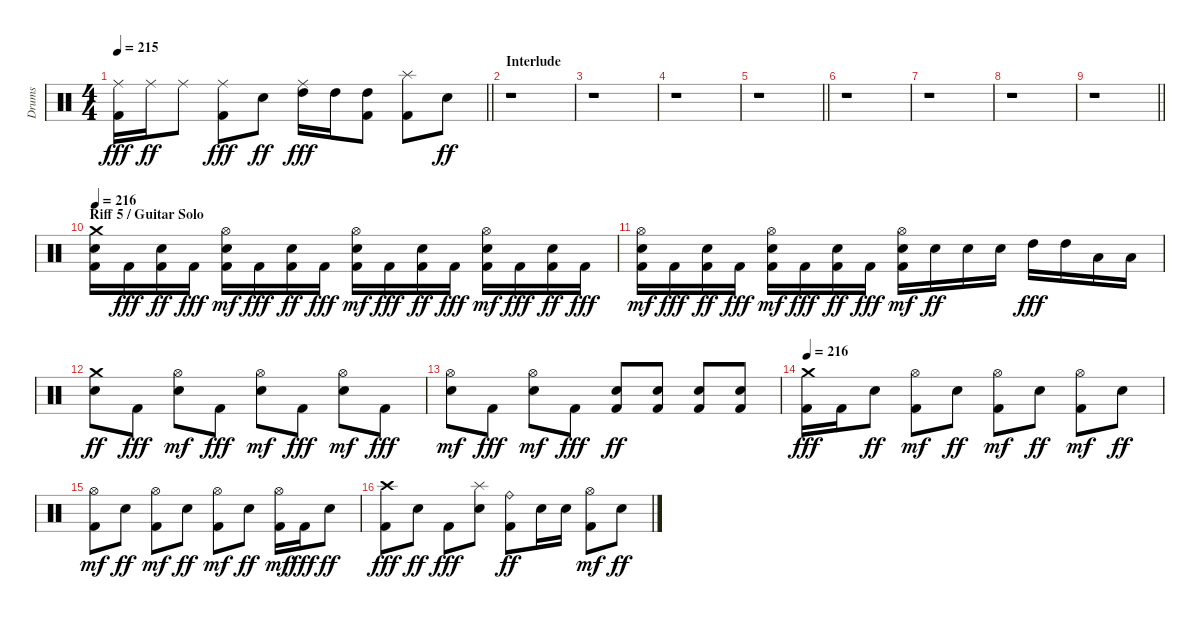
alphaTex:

\track ("Drums" "Drums") {instrument percussion}
\staff {score}
\articulation defaults
\ts (4 4)
\tempo 215
\clef neutral
\barLineRight lightlight
\ks c
("Kick (hit) 2" "Ride (middle)").16{dy fff} "Ride (middle)".16{dy ff} "Ride (middle)".8 ("Kick (hit) 2" "Ride (middle)").8{dy fff} "Snare (hit) 2".8{dy ff} ("High Tom (hit)" "Ride (middle)").16{dy fff} "High Tom (hit)".16 ("Kick (hit) 2" "High Tom (hit)").8 ("Kick (hit) 2" "Splash (hit)").8 "Snare (hit) 2".8{dy ff} |
\section ("" "Interlude")
r.1 |
r.1 |
r.1 |
\barLineRight lightlight
r.1 |
r.1 |
r.1 |
r.1 |
\barLineRight lightlight
r.1 |
\section ("" "Riff 5 / Guitar Solo")
\tempo 216
("Kick (hit) 2" "Snare (hit) 2" "Crash medium (hit)").16 "Kick (hit) 2".16{dy fff} ("Kick (hit) 2" "Snare (hit) 2").16{dy ff} "Kick (hit) 2".16{dy fff} ("Kick (hit) 2" "Snare (hit) 2" "Hi-Hat (open)").16{dy mf} "Kick (hit) 2".16{dy fff} ("Kick (hit) 2" "Snare (hit) 2").16{dy ff} "Kick (hit) 2".16{dy fff} ("Kick (hit) 2" "Snare (hit) 2" "Hi-Hat (open)").16{dy mf} "Kick (hit) 2".16{dy fff} ("Kick (hit) 2" "Snare (hit) 2").16{dy ff} "Kick (hit) 2".16{dy fff} ("Kick (hit) 2" "Snare (hit) 2" "Hi-Hat (open)").16{dy mf} "Kick (hit) 2".16{dy fff} ("Kick (hit) 2" "Snare (hit) 2").16{dy ff} "Kick (hit) 2".16{dy fff} |
("Kick (hit) 2" "Snare (hit) 2" "Hi-Hat (open)").16{dy mf} "Kick (hit) 2".16{dy fff} ("Kick (hit) 2" "Snare (hit) 2").16{dy ff} "Kick (hit) 2".16{dy fff} ("Kick (hit) 2" "Snare (hit) 2" "Hi-Hat (open)").16{dy mf} "Kick (hit) 2".16{dy fff} ("Kick (hit) 2" "Snare (hit) 2").16{dy ff} "Kick (hit) 2".16{dy fff} ("Kick (hit) 2" "Snare (hit) 2" "Hi-Hat (open)").16{dy mf} "Snare (hit) 2".16{dy ff} "Snare (hit) 2".16 "Snare (hit) 2".16 "High Tom (hit)".16{dy fff} "High Tom (hit)".16 "Low Tom (hit)".16 "Low Tom (hit)".16 |
("Snare (hit) 2" "Crash medium (hit)").8{dy ff} "Kick (hit) 2".8{dy fff} ("Snare (hit) 2" "Hi-Hat (open)").8{dy mf} "Kick (hit) 2".8{dy fff} ("Snare (hit) 2" "Hi-Hat (open)").8{dy mf} "Kick (hit) 2".8{dy fff} ("Snare (hit) 2" "Hi-Hat (open)").8{dy mf} "Kick (hit) 2".8{dy fff} |
("Snare (hit) 2" "Hi-Hat (open)").8{dy mf} "Kick (hit) 2".8{dy fff} ("Snare (hit) 2" "Hi-Hat (open)").8{dy mf} "Kick (hit) 2".8{dy fff} ("Kick (hit) 2" "Snare (hit) 2").8{dy ff} ("Kick (hit) 2" "Snare (hit) 2").8 ("Kick (hit) 2" "Snare (hit) 2").8 ("Kick (hit) 2" "Snare (hit) 2").8 |
\tempo 216
("Kick (hit) 2" "Crash medium (hit)").16{dy fff} "Kick (hit) 2".16 "Snare (hit) 2".8{dy ff} ("Kick (hit) 2" "Hi-Hat (open)").8{dy mf} "Snare (hit) 2".8{dy ff} ("Kick (hit) 2" "Hi-Hat (open)").8{dy mf} "Snare (hit) 2".8{dy ff} ("Kick (hit) 2" "Hi-Hat (open)").8{dy mf} "Snare (hit) 2".8{dy ff} |
("Kick (hit) 2" "Hi-Hat (open)").8{dy mf} "Snare (hit) 2".8{dy ff} ("Kick (hit) 2" "Hi-Hat (open)").8{dy mf} "Snare (hit) 2".8{dy ff} ("Kick (hit) 2" "Hi-Hat (open)").8{dy mf} "Snare (hit) 2".8{dy ff} ("Kick (hit) 2" "Hi-Hat (open)").16{dy mf} "Kick (hit) 2".16{dy fff} "Snare (hit) 2".8{dy ff} |
("Kick (hit) 2" "Crash high (hit)").8{dy fff} "Snare (hit) 2".8{dy ff} "Kick (hit) 2".8{dy fff} ("Snare (hit) 2" "Splash (hit)").8 ("Kick (hit) 2" "Ride (bell)").8{dy ff} "Snare (hit) 2".16 "Snare (hit) 2".16 ("Kick (hit) 2" "Hi-Hat (open)").8{dy mf} "Snare (hit) 2".8{dy ff}
